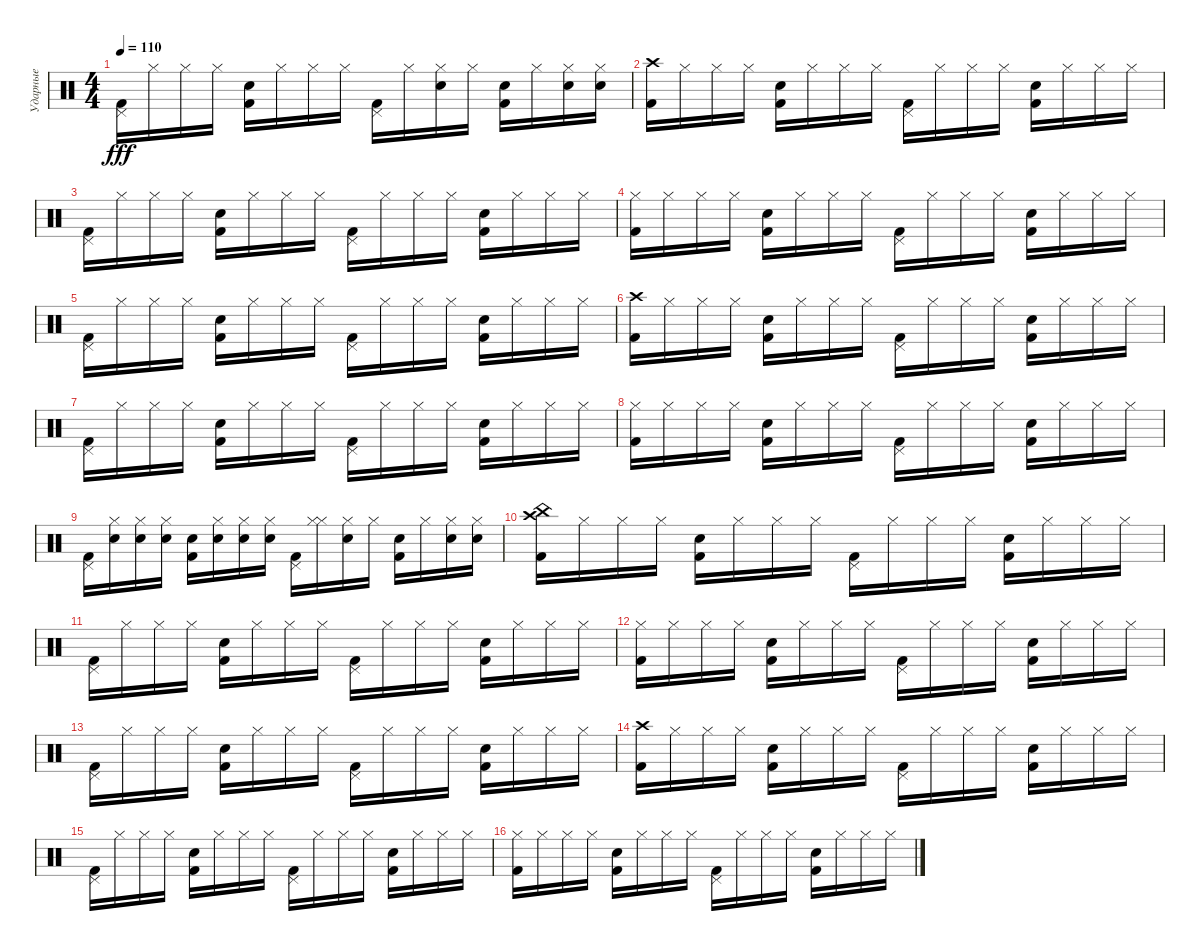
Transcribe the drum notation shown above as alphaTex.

\track ("Ударные" "Ударные") {instrument percussion}
\staff {score}
\articulation defaults
\ts (4 4)
\tempo 110
\clef neutral
\ks c
("Pedal Hi-Hat (hit)" "Kick (hit) 2").16{dy fff} "Hi-Hat (closed)".16 "Hi-Hat (closed)".16 "Hi-Hat (closed)".16 ("Snare (hit) 2" "Kick (hit) 2").16 "Hi-Hat (closed)".16 "Hi-Hat (closed)".16 "Hi-Hat (closed)".16 ("Pedal Hi-Hat (hit)" "Kick (hit) 2").16 "Hi-Hat (closed)".16 ("Hi-Hat (closed)" "Snare (hit) 2").16 "Hi-Hat (closed)".16 ("Snare (hit) 2" "Kick (hit) 2").16 "Hi-Hat (closed)".16 ("Hi-Hat (closed)" "Snare (hit) 2").16 ("Hi-Hat (closed)" "Snare (hit) 2").16 |
("Crash high (hit)" "Kick (hit) 2").16 "Hi-Hat (closed)".16 "Hi-Hat (closed)".16 "Hi-Hat (closed)".16 ("Snare (hit) 2" "Kick (hit) 2").16 "Hi-Hat (closed)".16 "Hi-Hat (closed)".16 "Hi-Hat (closed)".16 ("Pedal Hi-Hat (hit)" "Kick (hit) 2").16 "Hi-Hat (closed)".16 "Hi-Hat (closed)".16 "Hi-Hat (closed)".16 ("Snare (hit) 2" "Kick (hit) 2").16 "Hi-Hat (closed)".16 "Hi-Hat (closed)".16 "Hi-Hat (closed)".16 |
("Pedal Hi-Hat (hit)" "Kick (hit) 2").16 "Hi-Hat (closed)".16 "Hi-Hat (closed)".16 "Hi-Hat (closed)".16 ("Snare (hit) 2" "Kick (hit) 2").16 "Hi-Hat (closed)".16 "Hi-Hat (closed)".16 "Hi-Hat (closed)".16 ("Pedal Hi-Hat (hit)" "Kick (hit) 2").16 "Hi-Hat (closed)".16 "Hi-Hat (closed)".16 "Hi-Hat (closed)".16 ("Snare (hit) 2" "Kick (hit) 2").16 "Hi-Hat (closed)".16 "Hi-Hat (closed)".16 "Hi-Hat (closed)".16 |
("Hi-Hat (closed)" "Kick (hit) 2").16 "Hi-Hat (closed)".16 "Hi-Hat (closed)".16 "Hi-Hat (closed)".16 ("Snare (hit) 2" "Kick (hit) 2").16 "Hi-Hat (closed)".16 "Hi-Hat (closed)".16 "Hi-Hat (closed)".16 ("Pedal Hi-Hat (hit)" "Kick (hit) 2").16 "Hi-Hat (closed)".16 "Hi-Hat (closed)".16 "Hi-Hat (closed)".16 ("Snare (hit) 2" "Kick (hit) 2").16 "Hi-Hat (closed)".16 "Hi-Hat (closed)".16 "Hi-Hat (closed)".16 |
("Pedal Hi-Hat (hit)" "Kick (hit) 2").16 "Hi-Hat (closed)".16 "Hi-Hat (closed)".16 "Hi-Hat (closed)".16 ("Snare (hit) 2" "Kick (hit) 2").16 "Hi-Hat (closed)".16 "Hi-Hat (closed)".16 "Hi-Hat (closed)".16 ("Pedal Hi-Hat (hit)" "Kick (hit) 2").16 "Hi-Hat (closed)".16 "Hi-Hat (closed)".16 "Hi-Hat (closed)".16 ("Snare (hit) 2" "Kick (hit) 2").16 "Hi-Hat (closed)".16 "Hi-Hat (closed)".16 "Hi-Hat (closed)".16 |
("Crash high (hit)" "Kick (hit) 2").16 "Hi-Hat (closed)".16 "Hi-Hat (closed)".16 "Hi-Hat (closed)".16 ("Snare (hit) 2" "Kick (hit) 2").16 "Hi-Hat (closed)".16 "Hi-Hat (closed)".16 "Hi-Hat (closed)".16 ("Pedal Hi-Hat (hit)" "Kick (hit) 2").16 "Hi-Hat (closed)".16 "Hi-Hat (closed)".16 "Hi-Hat (closed)".16 ("Snare (hit) 2" "Kick (hit) 2").16 "Hi-Hat (closed)".16 "Hi-Hat (closed)".16 "Hi-Hat (closed)".16 |
("Pedal Hi-Hat (hit)" "Kick (hit) 2").16 "Hi-Hat (closed)".16 "Hi-Hat (closed)".16 "Hi-Hat (closed)".16 ("Snare (hit) 2" "Kick (hit) 2").16 "Hi-Hat (closed)".16 "Hi-Hat (closed)".16 "Hi-Hat (closed)".16 ("Pedal Hi-Hat (hit)" "Kick (hit) 2").16 "Hi-Hat (closed)".16 "Hi-Hat (closed)".16 "Hi-Hat (closed)".16 ("Snare (hit) 2" "Kick (hit) 2").16 "Hi-Hat (closed)".16 "Hi-Hat (closed)".16 "Hi-Hat (closed)".16 |
("Hi-Hat (closed)" "Kick (hit) 2").16 "Hi-Hat (closed)".16 "Hi-Hat (closed)".16 "Hi-Hat (closed)".16 ("Snare (hit) 2" "Kick (hit) 2").16 "Hi-Hat (closed)".16 "Hi-Hat (closed)".16 "Hi-Hat (closed)".16 ("Pedal Hi-Hat (hit)" "Kick (hit) 2").16 "Hi-Hat (closed)".16 "Hi-Hat (closed)".16 "Hi-Hat (closed)".16 ("Snare (hit) 2" "Kick (hit) 2").16 "Hi-Hat (closed)".16 "Hi-Hat (closed)".16 "Hi-Hat (closed)".16 |
("Pedal Hi-Hat (hit)" "Kick (hit) 2").16 ("Hi-Hat (closed)" "Snare (hit) 2").16 ("Hi-Hat (closed)" "Snare (hit) 2").16 ("Hi-Hat (closed)" "Snare (hit) 2").16 ("Snare (hit) 2" "Kick (hit) 2").16 ("Hi-Hat (closed)" "Snare (hit) 2").16 ("Hi-Hat (closed)" "Snare (hit) 2").16 ("Hi-Hat (closed)" "Snare (hit) 2").16 ("Pedal Hi-Hat (hit)" "Kick (hit) 2").16 ("Hi-Hat (closed)" "Hi-Hat (closed)").16 ("Hi-Hat (closed)" "Snare (hit) 2").16 "Hi-Hat (closed)".16 ("Snare (hit) 2" "Kick (hit) 2").16 "Hi-Hat (closed)".16 ("Hi-Hat (closed)" "Snare (hit) 2").16 ("Hi-Hat (closed)" "Snare (hit) 2").16 |
("Crash high (hit)" "China (hit)" "Kick (hit) 2").16 "Hi-Hat (closed)".16 "Hi-Hat (closed)".16 "Hi-Hat (closed)".16 ("Snare (hit) 2" "Kick (hit) 2").16 "Hi-Hat (closed)".16 "Hi-Hat (closed)".16 "Hi-Hat (closed)".16 ("Pedal Hi-Hat (hit)" "Kick (hit) 2").16 "Hi-Hat (closed)".16 "Hi-Hat (closed)".16 "Hi-Hat (closed)".16 ("Snare (hit) 2" "Kick (hit) 2").16 "Hi-Hat (closed)".16 "Hi-Hat (closed)".16 "Hi-Hat (closed)".16 |
("Pedal Hi-Hat (hit)" "Kick (hit) 2").16 "Hi-Hat (closed)".16 "Hi-Hat (closed)".16 "Hi-Hat (closed)".16 ("Snare (hit) 2" "Kick (hit) 2").16 "Hi-Hat (closed)".16 "Hi-Hat (closed)".16 "Hi-Hat (closed)".16 ("Pedal Hi-Hat (hit)" "Kick (hit) 2").16 "Hi-Hat (closed)".16 "Hi-Hat (closed)".16 "Hi-Hat (closed)".16 ("Snare (hit) 2" "Kick (hit) 2").16 "Hi-Hat (closed)".16 "Hi-Hat (closed)".16 "Hi-Hat (closed)".16 |
("Hi-Hat (closed)" "Kick (hit) 2").16 "Hi-Hat (closed)".16 "Hi-Hat (closed)".16 "Hi-Hat (closed)".16 ("Snare (hit) 2" "Kick (hit) 2").16 "Hi-Hat (closed)".16 "Hi-Hat (closed)".16 "Hi-Hat (closed)".16 ("Pedal Hi-Hat (hit)" "Kick (hit) 2").16 "Hi-Hat (closed)".16 "Hi-Hat (closed)".16 "Hi-Hat (closed)".16 ("Snare (hit) 2" "Kick (hit) 2").16 "Hi-Hat (closed)".16 "Hi-Hat (closed)".16 "Hi-Hat (closed)".16 |
("Pedal Hi-Hat (hit)" "Kick (hit) 2").16 "Hi-Hat (closed)".16 "Hi-Hat (closed)".16 "Hi-Hat (closed)".16 ("Snare (hit) 2" "Kick (hit) 2").16 "Hi-Hat (closed)".16 "Hi-Hat (closed)".16 "Hi-Hat (closed)".16 ("Pedal Hi-Hat (hit)" "Kick (hit) 2").16 "Hi-Hat (closed)".16 "Hi-Hat (closed)".16 "Hi-Hat (closed)".16 ("Snare (hit) 2" "Kick (hit) 2").16 "Hi-Hat (closed)".16 "Hi-Hat (closed)".16 "Hi-Hat (closed)".16 |
("Crash high (hit)" "Kick (hit) 2").16 "Hi-Hat (closed)".16 "Hi-Hat (closed)".16 "Hi-Hat (closed)".16 ("Snare (hit) 2" "Kick (hit) 2").16 "Hi-Hat (closed)".16 "Hi-Hat (closed)".16 "Hi-Hat (closed)".16 ("Pedal Hi-Hat (hit)" "Kick (hit) 2").16 "Hi-Hat (closed)".16 "Hi-Hat (closed)".16 "Hi-Hat (closed)".16 ("Snare (hit) 2" "Kick (hit) 2").16 "Hi-Hat (closed)".16 "Hi-Hat (closed)".16 "Hi-Hat (closed)".16 |
("Pedal Hi-Hat (hit)" "Kick (hit) 2").16 "Hi-Hat (closed)".16 "Hi-Hat (closed)".16 "Hi-Hat (closed)".16 ("Snare (hit) 2" "Kick (hit) 2").16 "Hi-Hat (closed)".16 "Hi-Hat (closed)".16 "Hi-Hat (closed)".16 ("Pedal Hi-Hat (hit)" "Kick (hit) 2").16 "Hi-Hat (closed)".16 "Hi-Hat (closed)".16 "Hi-Hat (closed)".16 ("Snare (hit) 2" "Kick (hit) 2").16 "Hi-Hat (closed)".16 "Hi-Hat (closed)".16 "Hi-Hat (closed)".16 |
("Hi-Hat (closed)" "Kick (hit) 2").16 "Hi-Hat (closed)".16 "Hi-Hat (closed)".16 "Hi-Hat (closed)".16 ("Snare (hit) 2" "Kick (hit) 2").16 "Hi-Hat (closed)".16 "Hi-Hat (closed)".16 "Hi-Hat (closed)".16 ("Pedal Hi-Hat (hit)" "Kick (hit) 2").16 "Hi-Hat (closed)".16 "Hi-Hat (closed)".16 "Hi-Hat (closed)".16 ("Snare (hit) 2" "Kick (hit) 2").16 "Hi-Hat (closed)".16 "Hi-Hat (closed)".16 "Hi-Hat (closed)".16
